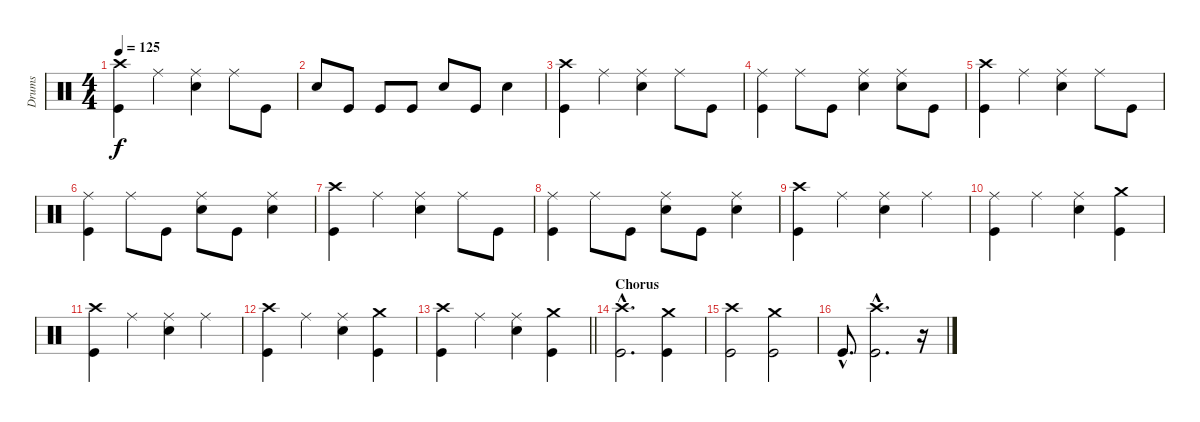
\track ("Drums" "Drums") {instrument percussion}
\staff {score}
\articulation defaults
\ts (4 4)
\tempo 125
\clef neutral
\ks c
("Crash high (hit)" "Kick (hit)").4{dy f} "Ride (middle)".4 ("Ride (middle)" "Snare (hit) 2").4 "Ride (middle)".8 "Kick (hit)".8 |
"Snare (hit) 2".8 "Kick (hit)".8 "Kick (hit)".8 "Kick (hit)".8 "Snare (hit) 2".8 "Kick (hit)".8 "Snare (hit) 2".4 |
("Crash high (hit)" "Kick (hit)").4 "Ride (middle)".4 ("Ride (middle)" "Snare (hit) 2").4 "Ride (middle)".8 "Kick (hit)".8 |
("Ride (middle)" "Kick (hit)").4 "Ride (middle)".8 "Kick (hit)".8 ("Ride (middle)" "Snare (hit) 2").4 ("Ride (middle)" "Snare (hit) 2").8 "Kick (hit)".8 |
("Crash high (hit)" "Kick (hit)").4 "Ride (middle)".4 ("Ride (middle)" "Snare (hit) 2").4 "Ride (middle)".8 "Kick (hit)".8 |
("Ride (middle)" "Kick (hit)").4 "Ride (middle)".8 "Kick (hit)".8 ("Ride (middle)" "Snare (hit) 2").8 "Kick (hit)".8 ("Ride (middle)" "Snare (hit) 2").4 |
("Crash high (hit)" "Kick (hit)").4 "Ride (middle)".4 ("Ride (middle)" "Snare (hit) 2").4 "Ride (middle)".8 "Kick (hit)".8 |
("Ride (middle)" "Kick (hit)").4 "Ride (middle)".8 "Kick (hit)".8 ("Ride (middle)" "Snare (hit) 2").8 "Kick (hit)".8 ("Ride (middle)" "Snare (hit) 2").4 |
("Crash high (hit)" "Kick (hit)").4 "Ride (middle)".4 ("Ride (middle)" "Snare (hit) 2").4 "Ride (middle)".4 |
("Ride (middle)" "Kick (hit)").4 "Ride (middle)".4 ("Ride (middle)" "Snare (hit) 2").4 ("Crash medium (hit)" "Kick (hit)").4 |
("Crash high (hit)" "Kick (hit)").4 "Ride (middle)".4 ("Ride (middle)" "Snare (hit) 2").4 "Ride (middle)".4 |
("Crash high (hit)" "Kick (hit)").4 "Ride (middle)".4 ("Ride (middle)" "Snare (hit) 2").4 ("Crash medium (hit)" "Kick (hit)").4 |
\barLineRight lightlight
("Crash high (hit)" "Kick (hit)").4 "Ride (middle)".4 ("Ride (middle)" "Snare (hit) 2").4 ("Crash medium (hit)" "Kick (hit)").4 |
\section ("" "Chorus")
("Crash high (hit)"{hac} "Kick (hit)"{hac}).2{d} ("Crash medium (hit)" "Kick (hit)").4 |
("Crash high (hit)" "Kick (hit)").2 ("Crash medium (hit)" "Kick (hit)").2 |
"Kick (hit)"{hac}.8{d} ("Crash high (hit)"{hac} "Kick (hit)"{hac}).2{d} r.16
